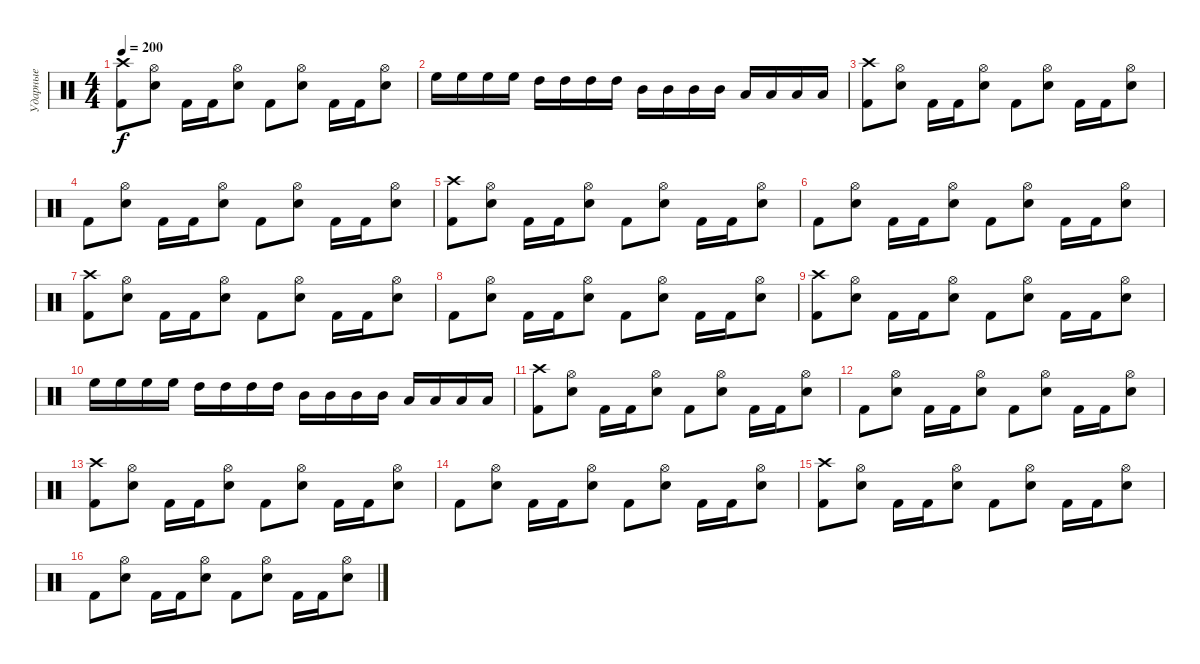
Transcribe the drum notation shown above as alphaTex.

\track ("Ударные" "Ударные") {instrument percussion}
\staff {score}
\articulation defaults
\ts (4 4)
\tempo 200
\clef neutral
\ks c
("Crash high (hit)" "Kick (hit) 2").8{dy f} ("Hi-Hat (open)" "Snare (hit) 2").8 "Kick (hit) 2".16 "Kick (hit) 2".16 ("Hi-Hat (open)" "Snare (hit) 2").8 "Kick (hit) 2".8 ("Hi-Hat (open)" "Snare (hit) 2").8 "Kick (hit) 2".16 "Kick (hit) 2".16 ("Hi-Hat (open)" "Snare (hit) 2").8 |
"High Floor Tom (hit)".16 "High Floor Tom (hit)".16 "High Floor Tom (hit)".16 "High Floor Tom (hit)".16 "High Tom (hit)".16 "High Tom (hit)".16 "High Tom (hit)".16 "High Tom (hit)".16 "Mid Tom (hit)".16 "Mid Tom (hit)".16 "Mid Tom (hit)".16 "Mid Tom (hit)".16 "Low Tom (hit)".16 "Low Tom (hit)".16 "Low Tom (hit)".16 "Low Tom (hit)".16 |
("Crash high (hit)" "Kick (hit) 2").8 ("Hi-Hat (open)" "Snare (hit) 2").8 "Kick (hit) 2".16 "Kick (hit) 2".16 ("Hi-Hat (open)" "Snare (hit) 2").8 "Kick (hit) 2".8 ("Hi-Hat (open)" "Snare (hit) 2").8 "Kick (hit) 2".16 "Kick (hit) 2".16 ("Hi-Hat (open)" "Snare (hit) 2").8 |
"Kick (hit) 2".8 ("Hi-Hat (open)" "Snare (hit) 2").8 "Kick (hit) 2".16 "Kick (hit) 2".16 ("Hi-Hat (open)" "Snare (hit) 2").8 "Kick (hit) 2".8 ("Hi-Hat (open)" "Snare (hit) 2").8 "Kick (hit) 2".16 "Kick (hit) 2".16 ("Hi-Hat (open)" "Snare (hit) 2").8 |
("Crash high (hit)" "Kick (hit) 2").8 ("Hi-Hat (open)" "Snare (hit) 2").8 "Kick (hit) 2".16 "Kick (hit) 2".16 ("Hi-Hat (open)" "Snare (hit) 2").8 "Kick (hit) 2".8 ("Hi-Hat (open)" "Snare (hit) 2").8 "Kick (hit) 2".16 "Kick (hit) 2".16 ("Hi-Hat (open)" "Snare (hit) 2").8 |
"Kick (hit) 2".8 ("Hi-Hat (open)" "Snare (hit) 2").8 "Kick (hit) 2".16 "Kick (hit) 2".16 ("Hi-Hat (open)" "Snare (hit) 2").8 "Kick (hit) 2".8 ("Hi-Hat (open)" "Snare (hit) 2").8 "Kick (hit) 2".16 "Kick (hit) 2".16 ("Hi-Hat (open)" "Snare (hit) 2").8 |
("Crash high (hit)" "Kick (hit) 2").8 ("Hi-Hat (open)" "Snare (hit) 2").8 "Kick (hit) 2".16 "Kick (hit) 2".16 ("Hi-Hat (open)" "Snare (hit) 2").8 "Kick (hit) 2".8 ("Hi-Hat (open)" "Snare (hit) 2").8 "Kick (hit) 2".16 "Kick (hit) 2".16 ("Hi-Hat (open)" "Snare (hit) 2").8 |
"Kick (hit) 2".8 ("Hi-Hat (open)" "Snare (hit) 2").8 "Kick (hit) 2".16 "Kick (hit) 2".16 ("Hi-Hat (open)" "Snare (hit) 2").8 "Kick (hit) 2".8 ("Hi-Hat (open)" "Snare (hit) 2").8 "Kick (hit) 2".16 "Kick (hit) 2".16 ("Hi-Hat (open)" "Snare (hit) 2").8 |
("Crash high (hit)" "Kick (hit) 2").8 ("Hi-Hat (open)" "Snare (hit) 2").8 "Kick (hit) 2".16 "Kick (hit) 2".16 ("Hi-Hat (open)" "Snare (hit) 2").8 "Kick (hit) 2".8 ("Hi-Hat (open)" "Snare (hit) 2").8 "Kick (hit) 2".16 "Kick (hit) 2".16 ("Hi-Hat (open)" "Snare (hit) 2").8 |
"High Floor Tom (hit)".16 "High Floor Tom (hit)".16 "High Floor Tom (hit)".16 "High Floor Tom (hit)".16 "High Tom (hit)".16 "High Tom (hit)".16 "High Tom (hit)".16 "High Tom (hit)".16 "Mid Tom (hit)".16 "Mid Tom (hit)".16 "Mid Tom (hit)".16 "Mid Tom (hit)".16 "Low Tom (hit)".16 "Low Tom (hit)".16 "Low Tom (hit)".16 "Low Tom (hit)".16 |
("Crash high (hit)" "Kick (hit) 2").8 ("Hi-Hat (open)" "Snare (hit) 2").8 "Kick (hit) 2".16 "Kick (hit) 2".16 ("Hi-Hat (open)" "Snare (hit) 2").8 "Kick (hit) 2".8 ("Hi-Hat (open)" "Snare (hit) 2").8 "Kick (hit) 2".16 "Kick (hit) 2".16 ("Hi-Hat (open)" "Snare (hit) 2").8 |
"Kick (hit) 2".8 ("Hi-Hat (open)" "Snare (hit) 2").8 "Kick (hit) 2".16 "Kick (hit) 2".16 ("Hi-Hat (open)" "Snare (hit) 2").8 "Kick (hit) 2".8 ("Hi-Hat (open)" "Snare (hit) 2").8 "Kick (hit) 2".16 "Kick (hit) 2".16 ("Hi-Hat (open)" "Snare (hit) 2").8 |
("Crash high (hit)" "Kick (hit) 2").8 ("Hi-Hat (open)" "Snare (hit) 2").8 "Kick (hit) 2".16 "Kick (hit) 2".16 ("Hi-Hat (open)" "Snare (hit) 2").8 "Kick (hit) 2".8 ("Hi-Hat (open)" "Snare (hit) 2").8 "Kick (hit) 2".16 "Kick (hit) 2".16 ("Hi-Hat (open)" "Snare (hit) 2").8 |
"Kick (hit) 2".8 ("Hi-Hat (open)" "Snare (hit) 2").8 "Kick (hit) 2".16 "Kick (hit) 2".16 ("Hi-Hat (open)" "Snare (hit) 2").8 "Kick (hit) 2".8 ("Hi-Hat (open)" "Snare (hit) 2").8 "Kick (hit) 2".16 "Kick (hit) 2".16 ("Hi-Hat (open)" "Snare (hit) 2").8 |
("Crash high (hit)" "Kick (hit) 2").8 ("Hi-Hat (open)" "Snare (hit) 2").8 "Kick (hit) 2".16 "Kick (hit) 2".16 ("Hi-Hat (open)" "Snare (hit) 2").8 "Kick (hit) 2".8 ("Hi-Hat (open)" "Snare (hit) 2").8 "Kick (hit) 2".16 "Kick (hit) 2".16 ("Hi-Hat (open)" "Snare (hit) 2").8 |
"Kick (hit) 2".8 ("Hi-Hat (open)" "Snare (hit) 2").8 "Kick (hit) 2".16 "Kick (hit) 2".16 ("Hi-Hat (open)" "Snare (hit) 2").8 "Kick (hit) 2".8 ("Hi-Hat (open)" "Snare (hit) 2").8 "Kick (hit) 2".16 "Kick (hit) 2".16 ("Hi-Hat (open)" "Snare (hit) 2").8
